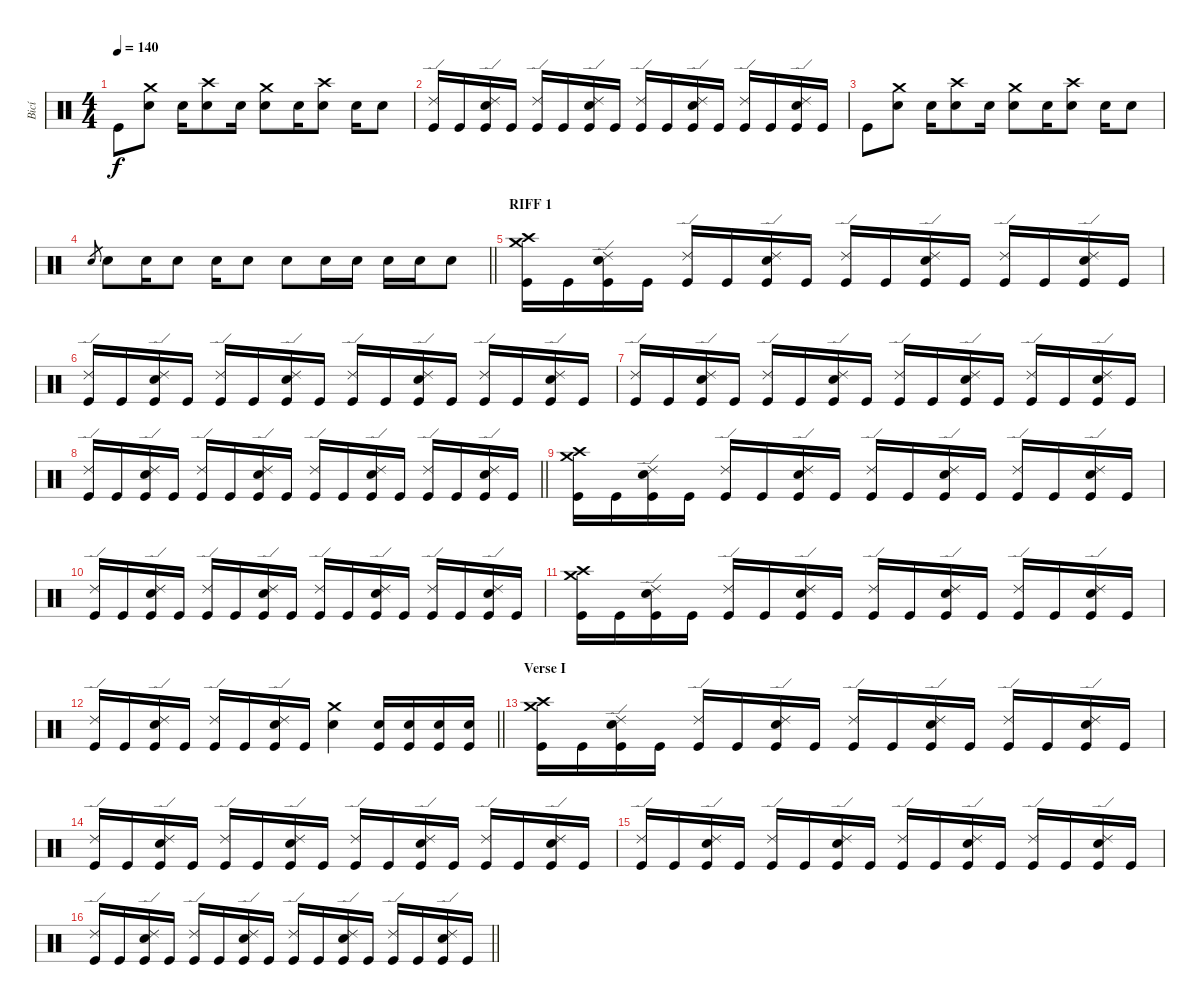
\track ("Bicí" "Bicí") {instrument percussion}
\staff {score}
\articulation defaults
\ts (4 4)
\tempo 140
\clef neutral
\ks c "Kick (hit)".8{dy f}
("Crash medium (hit)" "Electric Snare (hit)").8 "Snare (hit)".16 ("Crash high (hit)" "Electric Snare (hit)").8 "Snare (hit)".16 ("Crash medium (hit)" "Electric Snare (hit)").8 "Snare (hit)".16 ("Crash high (hit)" "Electric Snare (hit)").8 "Snare (hit)".16 "Electric Snare (hit)".8 |
("Ride (edge) 2" "Kick (hit)").16 "Kick (hit)".16 ("Ride (edge) 2" "Electric Snare (hit)" "Kick (hit)").16 "Kick (hit)".16 ("Ride (edge) 2" "Kick (hit)").16 "Kick (hit)".16 ("Ride (edge) 2" "Electric Snare (hit)" "Kick (hit)").16 "Kick (hit)".16 ("Ride (edge) 2" "Kick (hit)").16 "Kick (hit)".16 ("Ride (edge) 2" "Electric Snare (hit)" "Kick (hit)").16 "Kick (hit)".16 ("Ride (edge) 2" "Kick (hit)").16 "Kick (hit)".16 ("Ride (edge) 2" "Electric Snare (hit)" "Kick (hit)").16 "Kick (hit)".16 |
"Kick (hit)".8 ("Crash medium (hit)" "Electric Snare (hit)").8 "Snare (hit)".16 ("Crash high (hit)" "Electric Snare (hit)").8 "Snare (hit)".16 ("Crash medium (hit)" "Electric Snare (hit)").8 "Snare (hit)".16 ("Crash high (hit)" "Electric Snare (hit)").8 "Snare (hit)".16 "Electric Snare (hit)".8 |
\barLineRight lightlight "Electric Snare (hit)".8{gr} "Electric Snare (hit)".8 "Snare (hit)".16 "Electric Snare (hit)".8 "Snare (hit)".16 "Electric Snare (hit)".8 "Electric Snare (hit)".8 "Electric Snare (hit)".16 "Electric Snare (hit)".16 "Electric Snare (hit)".16 "Electric Snare (hit)".16 "Electric Snare (hit)".8
|
\section ("" "RIFF 1")
("Crash high (hit)" "Crash medium (hit)" "Kick (hit)").16 "Kick (hit)".16 ("Ride (edge) 2" "Electric Snare (hit)" "Kick (hit)").16 "Kick (hit)".16 ("Ride (edge) 2" "Kick (hit)").16 "Kick (hit)".16 ("Ride (edge) 2" "Electric Snare (hit)" "Kick (hit)").16 "Kick (hit)".16 ("Ride (edge) 2" "Kick (hit)").16 "Kick (hit)".16 ("Ride (edge) 2" "Electric Snare (hit)" "Kick (hit)").16 "Kick (hit)".16 ("Ride (edge) 2" "Kick (hit)").16 "Kick (hit)".16 ("Ride (edge) 2" "Electric Snare (hit)" "Kick (hit)").16 "Kick (hit)".16 |
("Ride (edge) 2" "Kick (hit)").16 "Kick (hit)".16 ("Ride (edge) 2" "Electric Snare (hit)" "Kick (hit)").16 "Kick (hit)".16 ("Ride (edge) 2" "Kick (hit)").16 "Kick (hit)".16 ("Ride (edge) 2" "Electric Snare (hit)" "Kick (hit)").16 "Kick (hit)".16 ("Ride (edge) 2" "Kick (hit)").16 "Kick (hit)".16 ("Ride (edge) 2" "Electric Snare (hit)" "Kick (hit)").16 "Kick (hit)".16 ("Ride (edge) 2" "Kick (hit)").16 "Kick (hit)".16 ("Ride (edge) 2" "Electric Snare (hit)" "Kick (hit)").16 "Kick (hit)".16 |
("Ride (edge) 2" "Kick (hit)").16 "Kick (hit)".16 ("Ride (edge) 2" "Electric Snare (hit)" "Kick (hit)").16 "Kick (hit)".16 ("Ride (edge) 2" "Kick (hit)").16 "Kick (hit)".16 ("Ride (edge) 2" "Electric Snare (hit)" "Kick (hit)").16 "Kick (hit)".16 ("Ride (edge) 2" "Kick (hit)").16 "Kick (hit)".16 ("Ride (edge) 2" "Electric Snare (hit)" "Kick (hit)").16 "Kick (hit)".16 ("Ride (edge) 2" "Kick (hit)").16 "Kick (hit)".16 ("Ride (edge) 2" "Electric Snare (hit)" "Kick (hit)").16 "Kick (hit)".16 |
\barLineRight lightlight
("Ride (edge) 2" "Kick (hit)").16 "Kick (hit)".16 ("Ride (edge) 2" "Electric Snare (hit)" "Kick (hit)").16 "Kick (hit)".16 ("Ride (edge) 2" "Kick (hit)").16 "Kick (hit)".16 ("Ride (edge) 2" "Electric Snare (hit)" "Kick (hit)").16 "Kick (hit)".16 ("Ride (edge) 2" "Kick (hit)").16 "Kick (hit)".16 ("Ride (edge) 2" "Electric Snare (hit)" "Kick (hit)").16 "Kick (hit)".16 ("Ride (edge) 2" "Kick (hit)").16 "Kick (hit)".16 ("Ride (edge) 2" "Electric Snare (hit)" "Kick (hit)").16 "Kick (hit)".16 |
("Crash high (hit)" "Crash medium (hit)" "Kick (hit)").16 "Kick (hit)".16 ("Ride (edge) 2" "Electric Snare (hit)" "Kick (hit)").16 "Kick (hit)".16 ("Ride (edge) 2" "Kick (hit)").16 "Kick (hit)".16 ("Ride (edge) 2" "Electric Snare (hit)" "Kick (hit)").16 "Kick (hit)".16 ("Ride (edge) 2" "Kick (hit)").16 "Kick (hit)".16 ("Ride (edge) 2" "Electric Snare (hit)" "Kick (hit)").16 "Kick (hit)".16 ("Ride (edge) 2" "Kick (hit)").16 "Kick (hit)".16 ("Ride (edge) 2" "Electric Snare (hit)" "Kick (hit)").16 "Kick (hit)".16 |
("Ride (edge) 2" "Kick (hit)").16 "Kick (hit)".16 ("Ride (edge) 2" "Electric Snare (hit)" "Kick (hit)").16 "Kick (hit)".16 ("Ride (edge) 2" "Kick (hit)").16 "Kick (hit)".16 ("Ride (edge) 2" "Electric Snare (hit)" "Kick (hit)").16 "Kick (hit)".16 ("Ride (edge) 2" "Kick (hit)").16 "Kick (hit)".16 ("Ride (edge) 2" "Electric Snare (hit)" "Kick (hit)").16 "Kick (hit)".16 ("Ride (edge) 2" "Kick (hit)").16 "Kick (hit)".16 ("Ride (edge) 2" "Electric Snare (hit)" "Kick (hit)").16 "Kick (hit)".16 |
("Crash high (hit)" "Crash medium (hit)" "Kick (hit)").16 "Kick (hit)".16 ("Ride (edge) 2" "Electric Snare (hit)" "Kick (hit)").16 "Kick (hit)".16 ("Ride (edge) 2" "Kick (hit)").16 "Kick (hit)".16 ("Ride (edge) 2" "Electric Snare (hit)" "Kick (hit)").16 "Kick (hit)".16 ("Ride (edge) 2" "Kick (hit)").16 "Kick (hit)".16 ("Ride (edge) 2" "Electric Snare (hit)" "Kick (hit)").16 "Kick (hit)".16 ("Ride (edge) 2" "Kick (hit)").16 "Kick (hit)".16 ("Ride (edge) 2" "Electric Snare (hit)" "Kick (hit)").16 "Kick (hit)".16 |
\barLineRight lightlight
("Ride (edge) 2" "Kick (hit)").16 "Kick (hit)".16 ("Ride (edge) 2" "Electric Snare (hit)" "Kick (hit)").16 "Kick (hit)".16 ("Ride (edge) 2" "Kick (hit)").16 "Kick (hit)".16 ("Ride (edge) 2" "Electric Snare (hit)" "Kick (hit)").16 "Kick (hit)".16 ("Crash medium (hit)" "Electric Snare (hit)").4 ("Kick (hit)" "Electric Snare (hit)").16 ("Kick (hit)" "Electric Snare (hit)").16 ("Kick (hit)" "Electric Snare (hit)").16 ("Kick (hit)" "Electric Snare (hit)").16 |
\section ("" "Verse I")
("Crash high (hit)" "Crash medium (hit)" "Kick (hit)").16 "Kick (hit)".16 ("Ride (edge) 2" "Electric Snare (hit)" "Kick (hit)").16 "Kick (hit)".16 ("Ride (edge) 2" "Kick (hit)").16 "Kick (hit)".16 ("Ride (edge) 2" "Electric Snare (hit)" "Kick (hit)").16 "Kick (hit)".16 ("Ride (edge) 2" "Kick (hit)").16 "Kick (hit)".16 ("Ride (edge) 2" "Electric Snare (hit)" "Kick (hit)").16 "Kick (hit)".16 ("Ride (edge) 2" "Kick (hit)").16 "Kick (hit)".16 ("Ride (edge) 2" "Electric Snare (hit)" "Kick (hit)").16 "Kick (hit)".16 |
("Ride (edge) 2" "Kick (hit)").16 "Kick (hit)".16 ("Ride (edge) 2" "Electric Snare (hit)" "Kick (hit)").16 "Kick (hit)".16 ("Ride (edge) 2" "Kick (hit)").16 "Kick (hit)".16 ("Ride (edge) 2" "Electric Snare (hit)" "Kick (hit)").16 "Kick (hit)".16 ("Ride (edge) 2" "Kick (hit)").16 "Kick (hit)".16 ("Ride (edge) 2" "Electric Snare (hit)" "Kick (hit)").16 "Kick (hit)".16 ("Ride (edge) 2" "Kick (hit)").16 "Kick (hit)".16 ("Ride (edge) 2" "Electric Snare (hit)" "Kick (hit)").16 "Kick (hit)".16 |
("Ride (edge) 2" "Kick (hit)").16 "Kick (hit)".16 ("Ride (edge) 2" "Electric Snare (hit)" "Kick (hit)").16 "Kick (hit)".16 ("Ride (edge) 2" "Kick (hit)").16 "Kick (hit)".16 ("Ride (edge) 2" "Electric Snare (hit)" "Kick (hit)").16 "Kick (hit)".16 ("Ride (edge) 2" "Kick (hit)").16 "Kick (hit)".16 ("Ride (edge) 2" "Electric Snare (hit)" "Kick (hit)").16 "Kick (hit)".16 ("Ride (edge) 2" "Kick (hit)").16 "Kick (hit)".16 ("Ride (edge) 2" "Electric Snare (hit)" "Kick (hit)").16 "Kick (hit)".16 |
\barLineRight lightlight
("Ride (edge) 2" "Kick (hit)").16 "Kick (hit)".16 ("Ride (edge) 2" "Electric Snare (hit)" "Kick (hit)").16 "Kick (hit)".16 ("Ride (edge) 2" "Kick (hit)").16 "Kick (hit)".16 ("Ride (edge) 2" "Electric Snare (hit)" "Kick (hit)").16 "Kick (hit)".16 ("Ride (edge) 2" "Kick (hit)").16 "Kick (hit)".16 ("Ride (edge) 2" "Electric Snare (hit)" "Kick (hit)").16 "Kick (hit)".16 ("Ride (edge) 2" "Kick (hit)").16 "Kick (hit)".16 ("Ride (edge) 2" "Electric Snare (hit)" "Kick (hit)").16 "Kick (hit)".16
